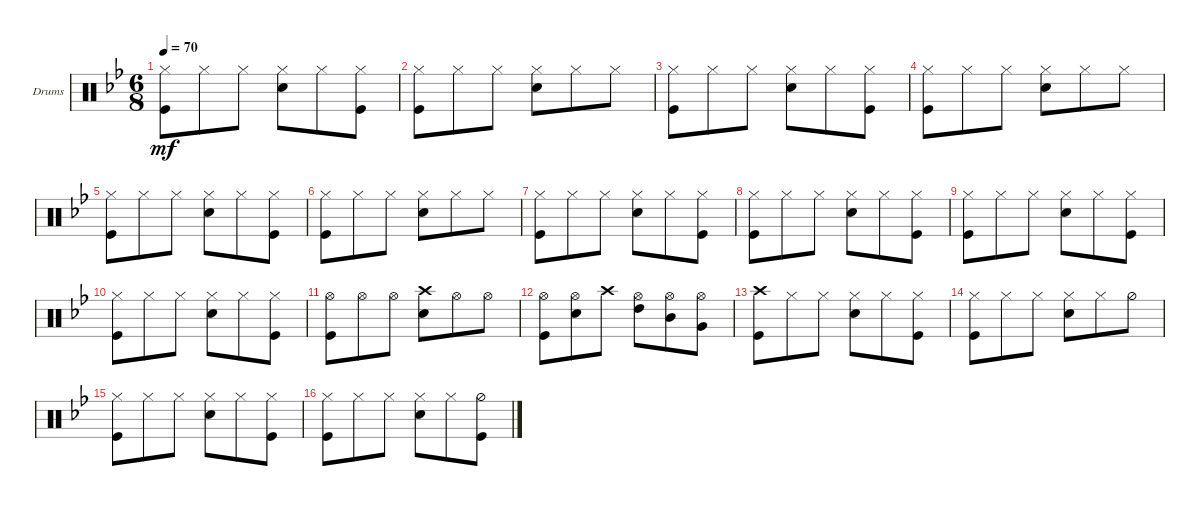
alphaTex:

\defaultSystemsLayout 4
\bracketExtendMode groupsimilarinstruments
\firstSystemTrackNameOrientation horizontal
\otherSystemsTrackNameOrientation horizontal
\track ("Drumkit" "Drums") {instrument percussion}
\staff {score}
\articulation defaults
\ts (6 8)
\tempo 70
\clef neutral
\scale
0.333333
\ks gminor
("Hi-Hat (closed)" "Kick (hit)").8{dy mf} "Hi-Hat (closed)".8 "Hi-Hat (closed)".8 ("Hi-Hat (closed)" "Snare (hit) 2").8 "Hi-Hat (closed)".8 ("Hi-Hat (closed)" "Kick (hit)").8 |
\scale
0.333333 ("Hi-Hat (closed)" "Kick (hit)").8 "Hi-Hat (closed)".8 "Hi-Hat (closed)".8 ("Snare (hit) 2" "Hi-Hat (closed)").8 "Hi-Hat (closed)".8 "Hi-Hat (closed)".8 |
\scale
0.333333 ("Hi-Hat (closed)" "Kick (hit)").8 "Hi-Hat (closed)".8 "Hi-Hat (closed)".8 ("Hi-Hat (closed)" "Snare (hit) 2").8 "Hi-Hat (closed)".8 ("Hi-Hat (closed)" "Kick (hit)").8 |
\scale
0.333333 ("Hi-Hat (closed)" "Kick (hit)").8 "Hi-Hat (closed)".8 "Hi-Hat (closed)".8 ("Hi-Hat (closed)" "Snare (hit) 2").8 "Hi-Hat (closed)".8 "Hi-Hat (closed)".8 |
\scale
0.333333 ("Kick (hit)" "Hi-Hat (closed)").8 "Hi-Hat (closed)".8 "Hi-Hat (closed)".8 ("Hi-Hat (closed)" "Snare (hit) 2").8 "Hi-Hat (closed)".8 ("Hi-Hat (closed)" "Kick (hit)").8 |
\scale
0.333333 ("Hi-Hat (closed)" "Kick (hit)").8 "Hi-Hat (closed)".8 "Hi-Hat (closed)".8 ("Hi-Hat (closed)" "Snare (hit) 2").8 "Hi-Hat (closed)".8 "Hi-Hat (closed)".8 |
\scale
0.333333 ("Hi-Hat (closed)" "Kick (hit)").8 "Hi-Hat (closed)".8 "Hi-Hat (closed)".8 ("Hi-Hat (closed)" "Snare (hit) 2").8 "Hi-Hat (closed)".8 ("Hi-Hat (closed)" "Kick (hit)").8 |
\scale
0.333333 ("Hi-Hat (closed)" "Kick (hit)").8 "Hi-Hat (closed)".8 "Hi-Hat (closed)".8 ("Hi-Hat (closed)" "Snare (hit) 2").8 "Hi-Hat (closed)".8 ("Kick (hit)" "Hi-Hat (closed)").8 |
\scale
0.333333 ("Hi-Hat (closed)" "Kick (hit)").8 "Hi-Hat (closed)".8 "Hi-Hat (closed)".8 ("Hi-Hat (closed)" "Snare (hit) 2").8 "Hi-Hat (closed)".8 ("Hi-Hat (closed)" "Kick (hit)").8 |
\scale
0.333333 ("Hi-Hat (closed)" "Kick (hit)").8 "Hi-Hat (closed)".8 "Hi-Hat (closed)".8 ("Hi-Hat (closed)" "Snare (hit) 2").8 "Hi-Hat (closed)".8 ("Hi-Hat (closed)" "Kick (hit)").8 |
\scale
0.333333 ("Hi-Hat (open)" "Kick (hit)").8 "Hi-Hat (open)".8 "Hi-Hat (open)".8 ("Snare (hit) 2" "Crash high (hit)").8 "Hi-Hat (open)".8 "Hi-Hat (open)".8 |
\scale
0.333333 ("Hi-Hat (open)" "Kick (hit)").8 ("Hi-Hat (open)" "Snare (hit) 2").8 "Crash high (hit)".8 ("Hi-Hat (open)" "High Tom (hit)").8 ("Hi-Hat (open)" "Mid Tom (hit)").8 ("Very Low Tom (hit)" "Hi-Hat (open)").8 |
\scale
0.333333 ("Kick (hit)" "Crash high (hit)").8 "Hi-Hat (closed)".8 "Hi-Hat (closed)".8 ("Hi-Hat (closed)" "Snare (hit) 2").8 "Hi-Hat (closed)".8 ("Hi-Hat (closed)" "Kick (hit)").8 |
("Hi-Hat (closed)" "Kick (hit)").8 "Hi-Hat (closed)".8 "Hi-Hat (closed)".8 ("Hi-Hat (closed)" "Snare (hit) 2").8 "Hi-Hat (closed)".8 "Hi-Hat (half)".8 |
("Hi-Hat (closed)" "Kick (hit)").8 "Hi-Hat (closed)".8 "Hi-Hat (closed)".8 ("Hi-Hat (closed)" "Snare (hit) 2").8 "Hi-Hat (closed)".8 ("Hi-Hat (closed)" "Kick (hit)").8 |
\scale
0.333333 ("Hi-Hat (closed)" "Kick (hit)").8 "Hi-Hat (closed)".8 "Hi-Hat (closed)".8 ("Hi-Hat (closed)" "Snare (hit) 2").8 "Hi-Hat (closed)".8 ("Kick (hit)" "Hi-Hat (half)").8
